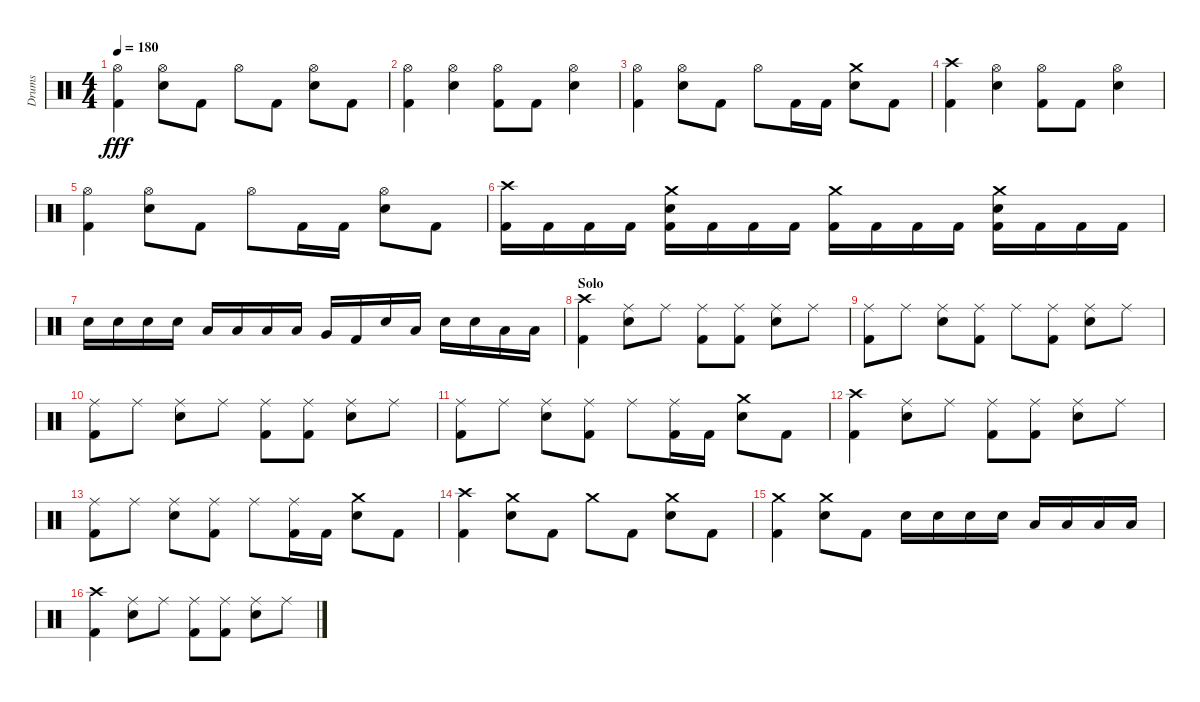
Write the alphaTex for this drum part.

\track ("Drums" "Drums") {instrument percussion}
\staff {score}
\articulation defaults
\ts (4 4)
\tempo 180
\clef neutral
\ks aminor
("Hi-Hat (open)" "Kick (hit) 2").4{dy fff} ("Snare (hit) 2" "Hi-Hat (open)").8 "Kick (hit) 2".8 "Hi-Hat (open)".8 "Kick (hit) 2".8 ("Snare (hit) 2" "Hi-Hat (open)").8 "Kick (hit) 2".8 |
("Hi-Hat (open)" "Kick (hit) 2").4 ("Hi-Hat (open)" "Snare (hit) 2").4 ("Kick (hit) 2" "Hi-Hat (open)").8 "Kick (hit) 2".8 ("Snare (hit) 2" "Hi-Hat (open)").4 |
("Hi-Hat (open)" "Kick (hit) 2").4 ("Hi-Hat (open)" "Snare (hit) 2").8 "Kick (hit) 2".8 "Hi-Hat (open)".8 "Kick (hit) 2".16 "Kick (hit) 2".16 ("Snare (hit) 2" "Crash medium (hit)").8 "Kick (hit) 2".8 |
("Crash high (hit)" "Kick (hit) 2").4 ("Snare (hit) 2" "Hi-Hat (open)").4 ("Kick (hit) 2" "Hi-Hat (open)").8 "Kick (hit) 2".8 ("Snare (hit) 2" "Hi-Hat (open)").4 |
("Hi-Hat (open)" "Kick (hit) 2").4 ("Hi-Hat (open)" "Snare (hit) 2").8 "Kick (hit) 2".8 "Hi-Hat (open)".8 "Kick (hit) 2".16 "Kick (hit) 2".16 ("Hi-Hat (open)" "Snare (hit) 2").8 "Kick (hit) 2".8 |
("Kick (hit) 2" "Crash high (hit)").16 "Kick (hit) 2".16 "Kick (hit) 2".16 "Kick (hit) 2".16 ("Crash medium (hit)" "Snare (hit) 2" "Kick (hit) 2").16 "Kick (hit) 2".16 "Kick (hit) 2".16 "Kick (hit) 2".16 ("Kick (hit) 2" "Crash medium (hit)").16 "Kick (hit) 2".16 "Kick (hit) 2".16 "Kick (hit) 2".16 ("Kick (hit) 2" "Snare (hit) 2" "Crash medium (hit)").16 "Kick (hit) 2".16 "Kick (hit) 2".16 "Kick (hit) 2".16 |
"Snare (hit) 2".16 "Snare (hit) 2".16 "Snare (hit) 2".16 "Snare (hit) 2".16 "Low Tom (hit)".16 "Low Tom (hit)".16 "Low Tom (hit)".16 "Low Tom (hit)".16 "Very Low Tom (hit)".16 "Kick (hit) 2".16 "Snare (hit) 2".16 "Low Floor Tom (hit)".16 "Snare (hit) 2".16 "Snare (hit) 2".16 "Low Floor Tom (hit)".16 "Low Floor Tom (hit)".16 |
\section ("" "Solo")
("Crash high (hit)" "Kick (hit) 2").4 ("Snare (hit) 2" "Ride (middle)").8 "Ride (middle)".8 ("Kick (hit) 2" "Ride (middle)").8 ("Kick (hit) 2" "Ride (middle)").8 ("Snare (hit) 2" "Ride (middle)").8 "Ride (middle)".8 |
("Kick (hit) 2" "Ride (middle)").8 "Ride (middle)".8 ("Ride (middle)" "Snare (hit) 2").8 ("Ride (middle)" "Kick (hit) 2").8 "Ride (middle)".8 ("Kick (hit) 2" "Ride (middle)").8 ("Snare (hit) 2" "Ride (middle)").8 "Ride (middle)".8 |
("Kick (hit) 2" "Ride (middle)").8 "Ride (middle)".8 ("Snare (hit) 2" "Ride (middle)").8 "Ride (middle)".8 ("Ride (middle)" "Kick (hit) 2").8 ("Kick (hit) 2" "Ride (middle)").8 ("Ride (middle)" "Snare (hit) 2").8 "Ride (middle)".8 |
("Kick (hit) 2" "Ride (middle)").8 "Ride (middle)".8 ("Ride (middle)" "Snare (hit) 2").8 ("Ride (middle)" "Kick (hit) 2").8 "Ride (middle)".8 ("Kick (hit) 2" "Ride (middle)").16 "Kick (hit) 2".16 ("Snare (hit) 2" "Crash medium (hit)").8 "Kick (hit) 2".8 |
("Kick (hit) 2" "Crash high (hit)").4 ("Ride (middle)" "Snare (hit) 2").8 "Ride (middle)".8 ("Kick (hit) 2" "Ride (middle)").8 ("Kick (hit) 2" "Ride (middle)").8 ("Snare (hit) 2" "Ride (middle)").8 "Ride (middle)".8 |
("Kick (hit) 2" "Ride (middle)").8 "Ride (middle)".8 ("Snare (hit) 2" "Ride (middle)").8 ("Kick (hit) 2" "Ride (middle)").8 "Ride (middle)".8 ("Kick (hit) 2" "Ride (middle)").16 "Kick (hit) 2".16 ("Snare (hit) 2" "Crash medium (hit)").8 "Kick (hit) 2".8 |
("Crash high (hit)" "Kick (hit) 2").4 ("Crash medium (hit)" "Snare (hit) 2").8 "Kick (hit) 2".8 "Crash medium (hit)".8 "Kick (hit) 2".8 ("Snare (hit) 2" "Crash medium (hit)").8 "Kick (hit) 2".8 |
("Kick (hit) 2" "Crash medium (hit)").4 ("Crash medium (hit)" "Snare (hit) 2").8 "Kick (hit) 2".8 "Snare (hit) 2".16 "Snare (hit) 2".16 "Snare (hit) 2".16 "Snare (hit) 2".16 "Low Floor Tom (hit)".16 "Low Floor Tom (hit)".16 "Low Floor Tom (hit)".16 "Low Floor Tom (hit)".16 |
("Kick (hit) 2" "Crash high (hit)").4 ("Snare (hit) 2" "Ride (middle)").8 "Ride (middle)".8 ("Kick (hit) 2" "Ride (middle)").8 ("Ride (middle)" "Kick (hit) 2").8 ("Ride (middle)" "Snare (hit) 2").8 "Ride (middle)".8
